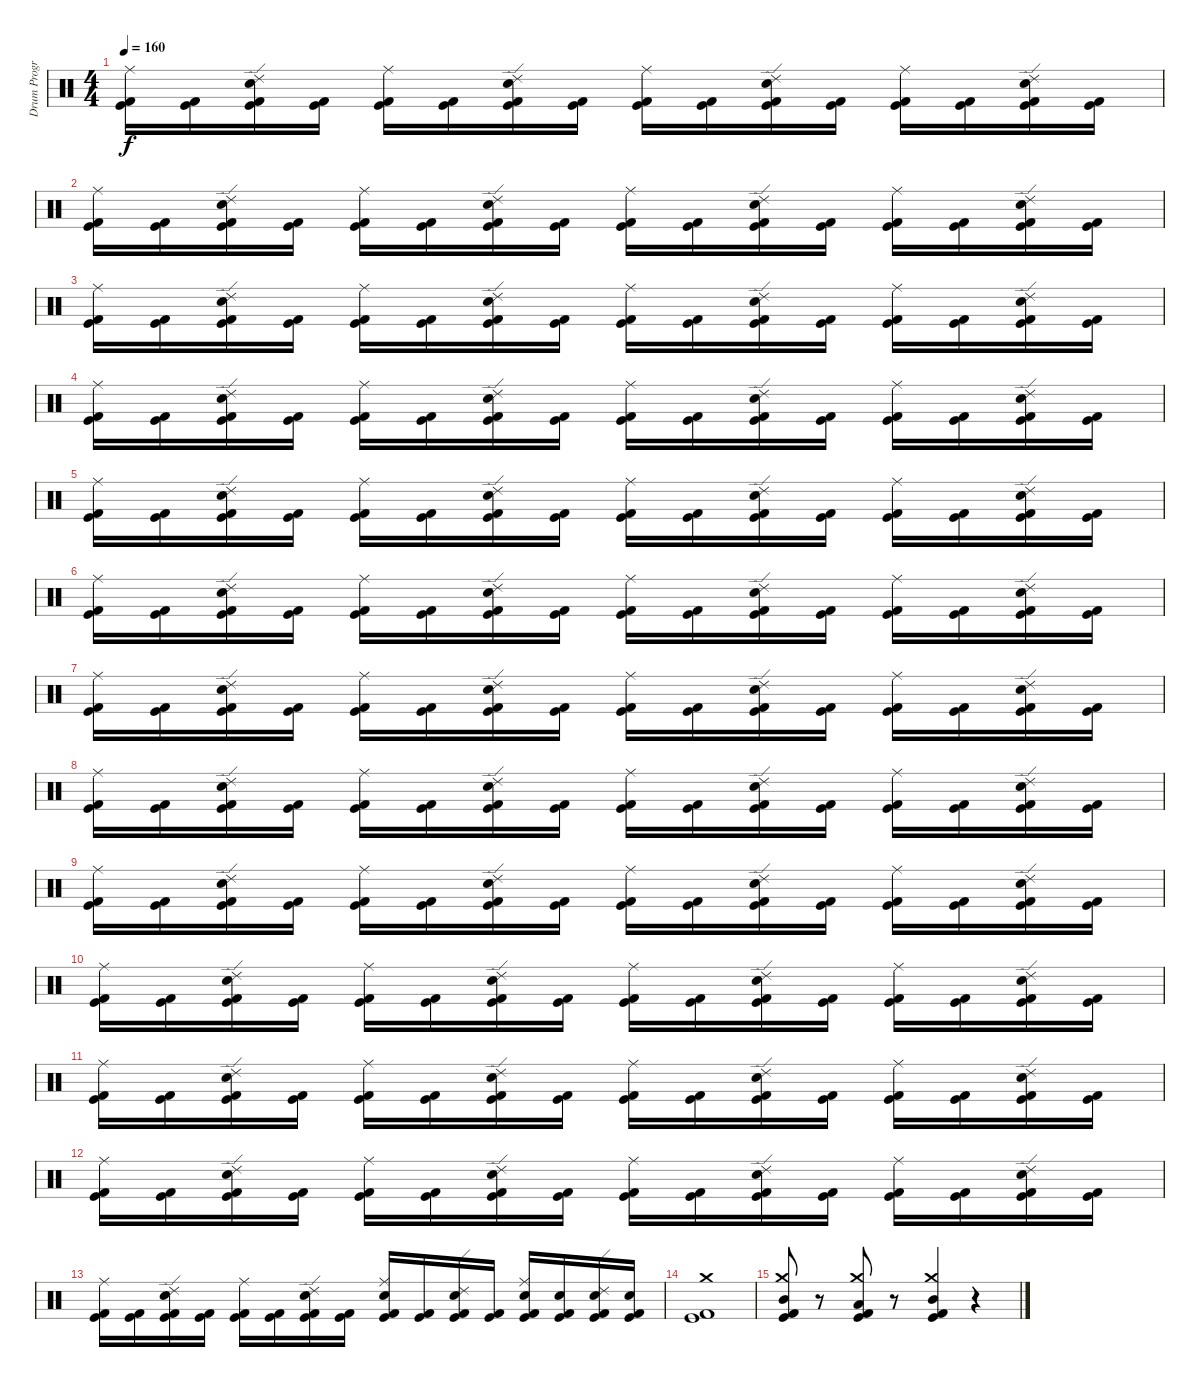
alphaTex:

\track ("Drum Program - BG" "Drum Progr") {instrument percussion}
\staff {score}
\articulation defaults
\ts (4 4)
\tempo 160
\clef neutral
\ks c
("Kick (hit)" "Kick (hit) 2" "Ride (middle)").16{dy f} ("Kick (hit)" "Kick (hit) 2").16 ("Kick (hit)" "Kick (hit) 2" "Electric Snare (hit)" "Ride (edge) 2").16 ("Kick (hit)" "Kick (hit) 2").16 ("Kick (hit)" "Kick (hit) 2" "Ride (middle)").16 ("Kick (hit)" "Kick (hit) 2").16 ("Kick (hit)" "Kick (hit) 2" "Electric Snare (hit)" "Ride (edge) 2").16 ("Kick (hit)" "Kick (hit) 2").16 ("Kick (hit)" "Kick (hit) 2" "Ride (middle)").16 ("Kick (hit)" "Kick (hit) 2").16 ("Kick (hit)" "Kick (hit) 2" "Electric Snare (hit)" "Ride (edge) 2").16 ("Kick (hit)" "Kick (hit) 2").16 ("Kick (hit)" "Kick (hit) 2" "Ride (middle)").16 ("Kick (hit)" "Kick (hit) 2").16 ("Kick (hit)" "Kick (hit) 2" "Electric Snare (hit)" "Ride (edge) 2").16 ("Kick (hit)" "Kick (hit) 2").16 |
("Kick (hit)" "Kick (hit) 2" "Ride (middle)").16 ("Kick (hit)" "Kick (hit) 2").16 ("Kick (hit)" "Kick (hit) 2" "Electric Snare (hit)" "Ride (edge) 2").16 ("Kick (hit)" "Kick (hit) 2").16 ("Kick (hit)" "Kick (hit) 2" "Ride (middle)").16 ("Kick (hit)" "Kick (hit) 2").16 ("Kick (hit)" "Kick (hit) 2" "Electric Snare (hit)" "Ride (edge) 2").16 ("Kick (hit)" "Kick (hit) 2").16 ("Kick (hit)" "Kick (hit) 2" "Ride (middle)").16 ("Kick (hit)" "Kick (hit) 2").16 ("Kick (hit)" "Kick (hit) 2" "Electric Snare (hit)" "Ride (edge) 2").16 ("Kick (hit)" "Kick (hit) 2").16 ("Kick (hit)" "Kick (hit) 2" "Ride (middle)").16 ("Kick (hit)" "Kick (hit) 2").16 ("Kick (hit)" "Kick (hit) 2" "Electric Snare (hit)" "Ride (edge) 2").16 ("Kick (hit)" "Kick (hit) 2").16 |
("Kick (hit)" "Kick (hit) 2" "Ride (middle)").16 ("Kick (hit)" "Kick (hit) 2").16 ("Kick (hit)" "Kick (hit) 2" "Electric Snare (hit)" "Ride (edge) 2").16 ("Kick (hit)" "Kick (hit) 2").16 ("Kick (hit)" "Kick (hit) 2" "Ride (middle)").16 ("Kick (hit)" "Kick (hit) 2").16 ("Kick (hit)" "Kick (hit) 2" "Electric Snare (hit)" "Ride (edge) 2").16 ("Kick (hit)" "Kick (hit) 2").16 ("Kick (hit)" "Kick (hit) 2" "Ride (middle)").16 ("Kick (hit)" "Kick (hit) 2").16 ("Kick (hit)" "Kick (hit) 2" "Electric Snare (hit)" "Ride (edge) 2").16 ("Kick (hit)" "Kick (hit) 2").16 ("Kick (hit)" "Kick (hit) 2" "Ride (middle)").16 ("Kick (hit)" "Kick (hit) 2").16 ("Kick (hit)" "Kick (hit) 2" "Electric Snare (hit)" "Ride (edge) 2").16 ("Kick (hit)" "Kick (hit) 2").16 |
("Kick (hit)" "Kick (hit) 2" "Ride (middle)").16 ("Kick (hit)" "Kick (hit) 2").16 ("Kick (hit)" "Kick (hit) 2" "Electric Snare (hit)" "Ride (edge) 2").16 ("Kick (hit)" "Kick (hit) 2").16 ("Kick (hit)" "Kick (hit) 2" "Ride (middle)").16 ("Kick (hit)" "Kick (hit) 2").16 ("Kick (hit)" "Kick (hit) 2" "Electric Snare (hit)" "Ride (edge) 2").16 ("Kick (hit)" "Kick (hit) 2").16 ("Kick (hit)" "Kick (hit) 2" "Ride (middle)").16 ("Kick (hit)" "Kick (hit) 2").16 ("Kick (hit)" "Kick (hit) 2" "Electric Snare (hit)" "Ride (edge) 2").16 ("Kick (hit)" "Kick (hit) 2").16 ("Kick (hit)" "Kick (hit) 2" "Ride (middle)").16 ("Kick (hit)" "Kick (hit) 2").16 ("Kick (hit)" "Kick (hit) 2" "Electric Snare (hit)" "Ride (edge) 2").16 ("Kick (hit)" "Kick (hit) 2").16 |
("Kick (hit)" "Kick (hit) 2" "Ride (middle)").16 ("Kick (hit)" "Kick (hit) 2").16 ("Kick (hit)" "Kick (hit) 2" "Electric Snare (hit)" "Ride (edge) 2").16 ("Kick (hit)" "Kick (hit) 2").16 ("Kick (hit)" "Kick (hit) 2" "Ride (middle)").16 ("Kick (hit)" "Kick (hit) 2").16 ("Kick (hit)" "Kick (hit) 2" "Electric Snare (hit)" "Ride (edge) 2").16 ("Kick (hit)" "Kick (hit) 2").16 ("Kick (hit)" "Kick (hit) 2" "Ride (middle)").16 ("Kick (hit)" "Kick (hit) 2").16 ("Kick (hit)" "Kick (hit) 2" "Electric Snare (hit)" "Ride (edge) 2").16 ("Kick (hit)" "Kick (hit) 2").16 ("Kick (hit)" "Kick (hit) 2" "Ride (middle)").16 ("Kick (hit)" "Kick (hit) 2").16 ("Kick (hit)" "Kick (hit) 2" "Electric Snare (hit)" "Ride (edge) 2").16 ("Kick (hit)" "Kick (hit) 2").16 |
("Kick (hit)" "Kick (hit) 2" "Ride (middle)").16 ("Kick (hit)" "Kick (hit) 2").16 ("Kick (hit)" "Kick (hit) 2" "Electric Snare (hit)" "Ride (edge) 2").16 ("Kick (hit)" "Kick (hit) 2").16 ("Kick (hit)" "Kick (hit) 2" "Ride (middle)").16 ("Kick (hit)" "Kick (hit) 2").16 ("Kick (hit)" "Kick (hit) 2" "Electric Snare (hit)" "Ride (edge) 2").16 ("Kick (hit)" "Kick (hit) 2").16 ("Kick (hit)" "Kick (hit) 2" "Ride (middle)").16 ("Kick (hit)" "Kick (hit) 2").16 ("Kick (hit)" "Kick (hit) 2" "Electric Snare (hit)" "Ride (edge) 2").16 ("Kick (hit)" "Kick (hit) 2").16 ("Kick (hit)" "Kick (hit) 2" "Ride (middle)").16 ("Kick (hit)" "Kick (hit) 2").16 ("Kick (hit)" "Kick (hit) 2" "Electric Snare (hit)" "Ride (edge) 2").16 ("Kick (hit)" "Kick (hit) 2").16 |
("Kick (hit)" "Kick (hit) 2" "Ride (middle)").16 ("Kick (hit)" "Kick (hit) 2").16 ("Kick (hit)" "Kick (hit) 2" "Electric Snare (hit)" "Ride (edge) 2").16 ("Kick (hit)" "Kick (hit) 2").16 ("Kick (hit)" "Kick (hit) 2" "Ride (middle)").16 ("Kick (hit)" "Kick (hit) 2").16 ("Kick (hit)" "Kick (hit) 2" "Electric Snare (hit)" "Ride (edge) 2").16 ("Kick (hit)" "Kick (hit) 2").16 ("Kick (hit)" "Kick (hit) 2" "Ride (middle)").16 ("Kick (hit)" "Kick (hit) 2").16 ("Kick (hit)" "Kick (hit) 2" "Electric Snare (hit)" "Ride (edge) 2").16 ("Kick (hit)" "Kick (hit) 2").16 ("Kick (hit)" "Kick (hit) 2" "Ride (middle)").16 ("Kick (hit)" "Kick (hit) 2").16 ("Kick (hit)" "Kick (hit) 2" "Electric Snare (hit)" "Ride (edge) 2").16 ("Kick (hit)" "Kick (hit) 2").16 |
("Kick (hit)" "Kick (hit) 2" "Ride (middle)").16 ("Kick (hit)" "Kick (hit) 2").16 ("Kick (hit)" "Kick (hit) 2" "Electric Snare (hit)" "Ride (edge) 2").16 ("Kick (hit)" "Kick (hit) 2").16 ("Kick (hit)" "Kick (hit) 2" "Ride (middle)").16 ("Kick (hit)" "Kick (hit) 2").16 ("Kick (hit)" "Kick (hit) 2" "Electric Snare (hit)" "Ride (edge) 2").16 ("Kick (hit)" "Kick (hit) 2").16 ("Kick (hit)" "Kick (hit) 2" "Ride (middle)").16 ("Kick (hit)" "Kick (hit) 2").16 ("Kick (hit)" "Kick (hit) 2" "Electric Snare (hit)" "Ride (edge) 2").16 ("Kick (hit)" "Kick (hit) 2").16 ("Kick (hit)" "Kick (hit) 2" "Ride (middle)").16 ("Kick (hit)" "Kick (hit) 2").16 ("Kick (hit)" "Kick (hit) 2" "Electric Snare (hit)" "Ride (edge) 2").16 ("Kick (hit)" "Kick (hit) 2").16 |
("Kick (hit)" "Kick (hit) 2" "Ride (middle)").16 ("Kick (hit)" "Kick (hit) 2").16 ("Kick (hit)" "Kick (hit) 2" "Electric Snare (hit)" "Ride (edge) 2").16 ("Kick (hit)" "Kick (hit) 2").16 ("Kick (hit)" "Kick (hit) 2" "Ride (middle)").16 ("Kick (hit)" "Kick (hit) 2").16 ("Kick (hit)" "Kick (hit) 2" "Electric Snare (hit)" "Ride (edge) 2").16 ("Kick (hit)" "Kick (hit) 2").16 ("Kick (hit)" "Kick (hit) 2" "Ride (middle)").16 ("Kick (hit)" "Kick (hit) 2").16 ("Kick (hit)" "Kick (hit) 2" "Electric Snare (hit)" "Ride (edge) 2").16 ("Kick (hit)" "Kick (hit) 2").16 ("Kick (hit)" "Kick (hit) 2" "Ride (middle)").16 ("Kick (hit)" "Kick (hit) 2").16 ("Kick (hit)" "Kick (hit) 2" "Electric Snare (hit)" "Ride (edge) 2").16 ("Kick (hit)" "Kick (hit) 2").16 |
("Kick (hit)" "Kick (hit) 2" "Ride (middle)").16 ("Kick (hit)" "Kick (hit) 2").16 ("Kick (hit)" "Kick (hit) 2" "Electric Snare (hit)" "Ride (edge) 2").16 ("Kick (hit)" "Kick (hit) 2").16 ("Kick (hit)" "Kick (hit) 2" "Ride (middle)").16 ("Kick (hit)" "Kick (hit) 2").16 ("Kick (hit)" "Kick (hit) 2" "Electric Snare (hit)" "Ride (edge) 2").16 ("Kick (hit)" "Kick (hit) 2").16 ("Kick (hit)" "Kick (hit) 2" "Ride (middle)").16 ("Kick (hit)" "Kick (hit) 2").16 ("Kick (hit)" "Kick (hit) 2" "Electric Snare (hit)" "Ride (edge) 2").16 ("Kick (hit)" "Kick (hit) 2").16 ("Kick (hit)" "Kick (hit) 2" "Ride (middle)").16 ("Kick (hit)" "Kick (hit) 2").16 ("Kick (hit)" "Kick (hit) 2" "Electric Snare (hit)" "Ride (edge) 2").16 ("Kick (hit)" "Kick (hit) 2").16 |
("Kick (hit)" "Kick (hit) 2" "Ride (middle)").16 ("Kick (hit)" "Kick (hit) 2").16 ("Kick (hit)" "Kick (hit) 2" "Electric Snare (hit)" "Ride (edge) 2").16 ("Kick (hit)" "Kick (hit) 2").16 ("Kick (hit)" "Kick (hit) 2" "Ride (middle)").16 ("Kick (hit)" "Kick (hit) 2").16 ("Kick (hit)" "Kick (hit) 2" "Electric Snare (hit)" "Ride (edge) 2").16 ("Kick (hit)" "Kick (hit) 2").16 ("Kick (hit)" "Kick (hit) 2" "Ride (middle)").16 ("Kick (hit)" "Kick (hit) 2").16 ("Kick (hit)" "Kick (hit) 2" "Electric Snare (hit)" "Ride (edge) 2").16 ("Kick (hit)" "Kick (hit) 2").16 ("Kick (hit)" "Kick (hit) 2" "Ride (middle)").16 ("Kick (hit)" "Kick (hit) 2").16 ("Kick (hit)" "Kick (hit) 2" "Electric Snare (hit)" "Ride (edge) 2").16 ("Kick (hit)" "Kick (hit) 2").16 |
("Kick (hit)" "Kick (hit) 2" "Ride (middle)").16 ("Kick (hit)" "Kick (hit) 2").16 ("Kick (hit)" "Kick (hit) 2" "Electric Snare (hit)" "Ride (edge) 2").16 ("Kick (hit)" "Kick (hit) 2").16 ("Kick (hit)" "Kick (hit) 2" "Ride (middle)").16 ("Kick (hit)" "Kick (hit) 2").16 ("Kick (hit)" "Kick (hit) 2" "Electric Snare (hit)" "Ride (edge) 2").16 ("Kick (hit)" "Kick (hit) 2").16 ("Kick (hit)" "Kick (hit) 2" "Ride (middle)").16 ("Kick (hit)" "Kick (hit) 2").16 ("Kick (hit)" "Kick (hit) 2" "Electric Snare (hit)" "Ride (edge) 2").16 ("Kick (hit)" "Kick (hit) 2").16 ("Kick (hit)" "Kick (hit) 2" "Ride (middle)").16 ("Kick (hit)" "Kick (hit) 2").16 ("Kick (hit)" "Kick (hit) 2" "Electric Snare (hit)" "Ride (edge) 2").16 ("Kick (hit)" "Kick (hit) 2").16 |
("Kick (hit)" "Kick (hit) 2" "Ride (middle)").16 ("Kick (hit)" "Kick (hit) 2").16 ("Kick (hit)" "Kick (hit) 2" "Electric Snare (hit)" "Ride (edge) 2").16 ("Kick (hit)" "Kick (hit) 2").16 ("Kick (hit)" "Kick (hit) 2" "Ride (middle)").16 ("Kick (hit)" "Kick (hit) 2").16 ("Kick (hit)" "Kick (hit) 2" "Electric Snare (hit)" "Ride (edge) 2").16 ("Kick (hit)" "Kick (hit) 2").16 ("Kick (hit)" "Kick (hit) 2" "Electric Snare (hit)" "Ride (middle)").16 ("Kick (hit)" "Kick (hit) 2").16 ("Kick (hit)" "Kick (hit) 2" "Electric Snare (hit)" "Ride (edge) 2").16 ("Kick (hit)" "Kick (hit) 2").16 ("Kick (hit)" "Kick (hit) 2" "Electric Snare (hit)" "Ride (middle)").16 ("Kick (hit)" "Kick (hit) 2" "Electric Snare (hit)").16 ("Kick (hit)" "Kick (hit) 2" "Electric Snare (hit)" "Ride (edge) 2").16 ("Kick (hit)" "Kick (hit) 2" "Electric Snare (hit)").16 |
("Kick (hit)" "Kick (hit) 2" "Crash medium (hit)").1 |
("Mid Tom (hit)" "Kick (hit)" "Kick (hit) 2" "Crash medium (hit)").8 r.8 ("Low Tom (hit)" "Crash medium (hit)" "Kick (hit) 2" "Kick (hit)").8 r.8 ("Mid Tom (hit)" "Kick (hit) 2" "Kick (hit)" "Crash medium (hit)").4 r.4
